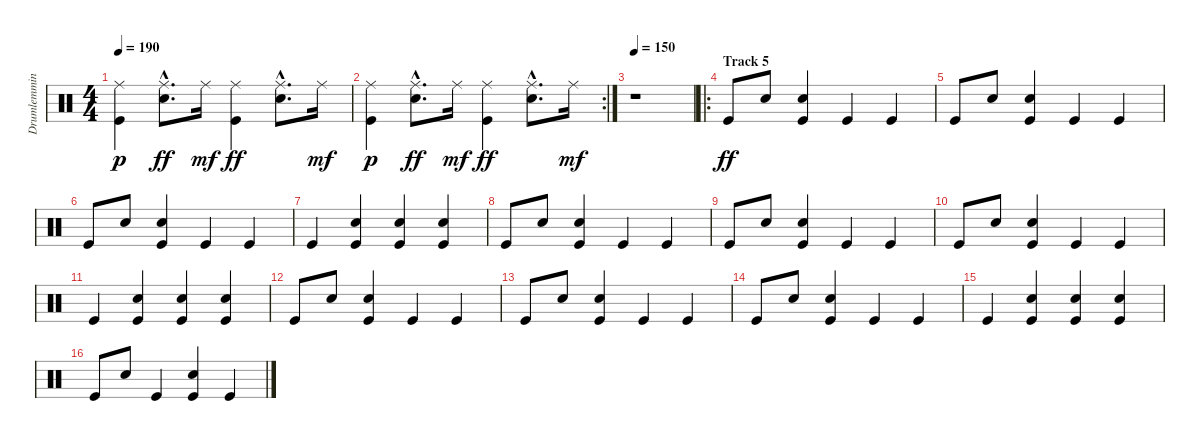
\track ("Drumlemming" "Drumlemmin") {instrument percussion}
\staff {score}
\articulation defaults
\ts (4 4)
\tempo 190
\clef neutral
\ks c
("Kick (hit)" "Ride (middle)").4{dy p} ("Ride (middle)"{hac} "Snare (hit) 2"{hac}).8{d dy ff} "Ride (middle)".16{dy mf} ("Ride (middle)" "Kick (hit)").4{dy ff} ("Ride (middle)"{hac} "Snare (hit) 2"{hac}).8{d} "Ride (middle)".16{dy mf} |
\rc 2
("Kick (hit)" "Ride (middle)").4{dy p} ("Ride (middle)"{hac} "Snare (hit) 2"{hac}).8{d dy ff} "Ride (middle)".16{dy mf} ("Ride (middle)" "Kick (hit)").4{dy ff} ("Ride (middle)"{hac} "Snare (hit) 2"{hac}).8{d} "Ride (middle)".16{dy mf} |
\tempo 150
r.1 |
\ro
\section ("" "Track 5")
"Kick (hit)".8{dy ff} "Snare (hit) 2".8 ("Kick (hit)" "Snare (hit) 2").4 "Kick (hit)".4 "Kick (hit)".4 |
"Kick (hit)".8 "Snare (hit) 2".8 ("Kick (hit)" "Snare (hit) 2").4 "Kick (hit)".4 "Kick (hit)".4 |
"Kick (hit)".8 "Snare (hit) 2".8 ("Kick (hit)" "Snare (hit) 2").4 "Kick (hit)".4 "Kick (hit)".4 |
"Kick (hit)".4 ("Kick (hit)" "Snare (hit) 2").4 ("Kick (hit)" "Snare (hit) 2").4 ("Kick (hit)" "Snare (hit) 2").4 |
"Kick (hit)".8 "Snare (hit) 2".8 ("Kick (hit)" "Snare (hit) 2").4 "Kick (hit)".4 "Kick (hit)".4 |
"Kick (hit)".8 "Snare (hit) 2".8 ("Kick (hit)" "Snare (hit) 2").4 "Kick (hit)".4 "Kick (hit)".4 |
"Kick (hit)".8 "Snare (hit) 2".8 ("Kick (hit)" "Snare (hit) 2").4 "Kick (hit)".4 "Kick (hit)".4 |
"Kick (hit)".4 ("Kick (hit)" "Snare (hit) 2").4 ("Kick (hit)" "Snare (hit) 2").4 ("Kick (hit)" "Snare (hit) 2").4 |
"Kick (hit)".8 "Snare (hit) 2".8 ("Kick (hit)" "Snare (hit) 2").4 "Kick (hit)".4 "Kick (hit)".4 |
"Kick (hit)".8 "Snare (hit) 2".8 ("Kick (hit)" "Snare (hit) 2").4 "Kick (hit)".4 "Kick (hit)".4 |
"Kick (hit)".8 "Snare (hit) 2".8 ("Kick (hit)" "Snare (hit) 2").4 "Kick (hit)".4 "Kick (hit)".4 |
"Kick (hit)".4 ("Kick (hit)" "Snare (hit) 2").4 ("Kick (hit)" "Snare (hit) 2").4 ("Kick (hit)" "Snare (hit) 2").4 |
"Kick (hit)".8 "Snare (hit) 2".8 "Kick (hit)".4 ("Kick (hit)" "Snare (hit) 2").4 "Kick (hit)".4
